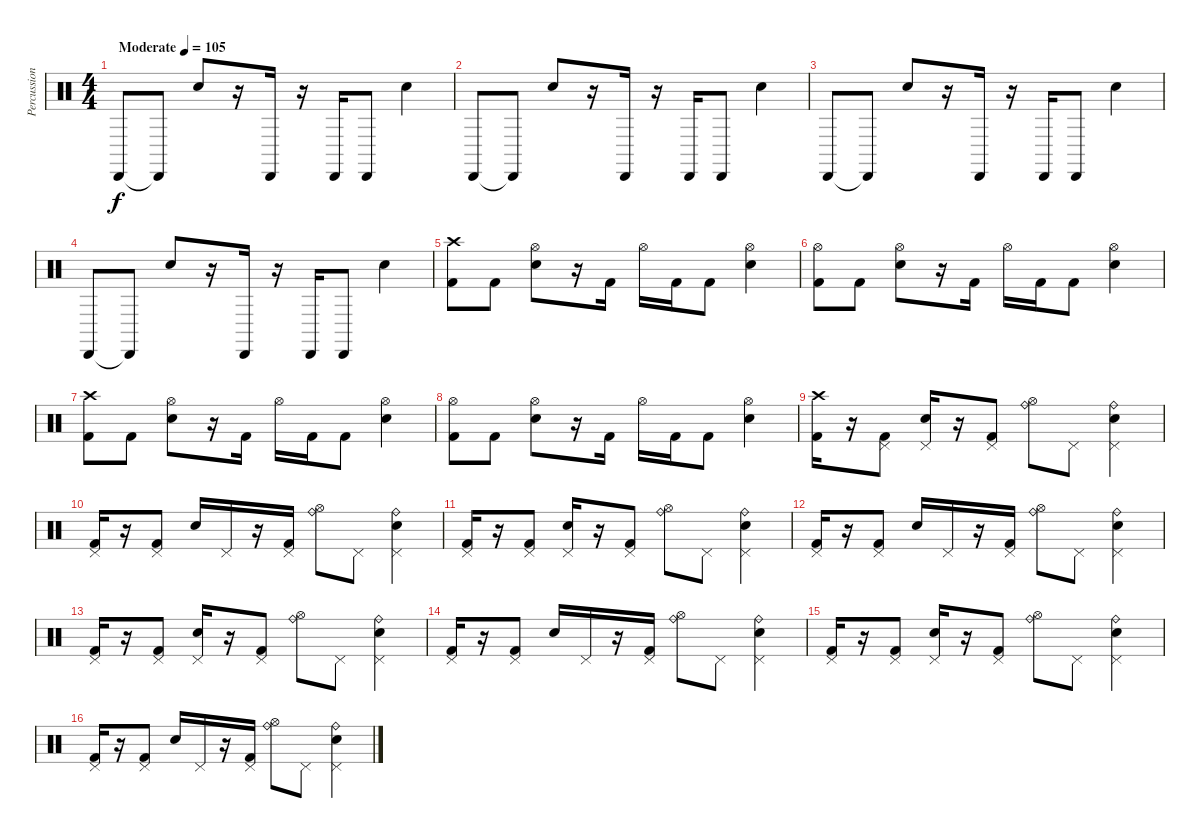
\track ("Percussion" "Percussion") {instrument percussion}
\staff {score}
\articulation defaults
\ts (4 4)
\tempo (105 "Moderate")
\clef neutral
\ks c "Cabasa (hit)".8{dy f} "Cabasa (hit)"{t}.8 "Hand Clap (hit)".8
r.16 "Cabasa (hit)".16 r.16 "Cabasa (hit)".16 "Cabasa (hit)".8 "Hand Clap (hit)".4 |
"Cabasa (hit)".8 "Cabasa (hit)"{t}.8 "Hand Clap (hit)".8 r.16 "Cabasa (hit)".16 r.16 "Cabasa (hit)".16 "Cabasa (hit)".8 "Hand Clap (hit)".4 |
"Cabasa (hit)".8 "Cabasa (hit)"{t}.8 "Hand Clap (hit)".8 r.16 "Cabasa (hit)".16 r.16 "Cabasa (hit)".16 "Cabasa (hit)".8 "Hand Clap (hit)".4 |
"Cabasa (hit)".8 "Cabasa (hit)"{t}.8 "Hand Clap (hit)".8 r.16 "Cabasa (hit)".16 r.16 "Cabasa (hit)".16 "Cabasa (hit)".8 "Hand Clap (hit)".4 |
("Crash high (hit)" "Kick (hit) 2").8 "Kick (hit) 2".8 ("Hi-Hat (open)" "Snare (hit) 2").8 r.16 "Kick (hit) 2".16 "Hi-Hat (open)".16 "Kick (hit) 2".16 "Kick (hit) 2".8 ("Hi-Hat (open)" "Snare (hit) 2").4 |
("Hi-Hat (open)" "Kick (hit) 2").8 "Kick (hit) 2".8 ("Hi-Hat (open)" "Snare (hit) 2").8 r.16 "Kick (hit) 2".16 "Hi-Hat (open)".16 "Kick (hit) 2".16 "Kick (hit) 2".8 ("Hi-Hat (open)" "Snare (hit) 2").4 |
("Crash high (hit)" "Kick (hit) 2").8 "Kick (hit) 2".8 ("Hi-Hat (open)" "Snare (hit) 2").8 r.16 "Kick (hit) 2".16 "Hi-Hat (open)".16 "Kick (hit) 2".16 "Kick (hit) 2".8 ("Hi-Hat (open)" "Snare (hit) 2").4 |
("Hi-Hat (open)" "Kick (hit) 2").8 "Kick (hit) 2".8 ("Hi-Hat (open)" "Snare (hit) 2").8 r.16 "Kick (hit) 2".16 "Hi-Hat (open)".16 "Kick (hit) 2".16 "Kick (hit) 2".8 ("Hi-Hat (open)" "Snare (hit) 2").4 |
("Crash high (hit)" "Kick (hit) 2").16 r.16 ("Pedal Hi-Hat (hit)" "Kick (hit) 2").8 ("Pedal Hi-Hat (hit)" "Snare (hit) 2").16 r.16 ("Pedal Hi-Hat (hit)" "Kick (hit) 2").8 ("Ride (bell)" "Hi-Hat (open)").8 "Pedal Hi-Hat (hit)".8 ("Ride (bell)" "Pedal Hi-Hat (hit)" "Snare (hit) 2").4 |
("Pedal Hi-Hat (hit)" "Kick (hit) 2").16 r.16 ("Pedal Hi-Hat (hit)" "Kick (hit) 2").8 "Snare (hit) 2".16 "Pedal Hi-Hat (hit)".16 r.16 ("Pedal Hi-Hat (hit)" "Kick (hit) 2").16 ("Ride (bell)" "Hi-Hat (open)").8 "Pedal Hi-Hat (hit)".8 ("Ride (bell)" "Pedal Hi-Hat (hit)" "Snare (hit) 2").4 |
("Pedal Hi-Hat (hit)" "Kick (hit) 2").16 r.16 ("Pedal Hi-Hat (hit)" "Kick (hit) 2").8 ("Pedal Hi-Hat (hit)" "Snare (hit) 2").16 r.16 ("Pedal Hi-Hat (hit)" "Kick (hit) 2").8 ("Ride (bell)" "Hi-Hat (open)").8 "Pedal Hi-Hat (hit)".8 ("Ride (bell)" "Pedal Hi-Hat (hit)" "Snare (hit) 2").4 |
("Pedal Hi-Hat (hit)" "Kick (hit) 2").16 r.16 ("Pedal Hi-Hat (hit)" "Kick (hit) 2").8 "Snare (hit) 2".16 "Pedal Hi-Hat (hit)".16 r.16 ("Pedal Hi-Hat (hit)" "Kick (hit) 2").16 ("Ride (bell)" "Hi-Hat (open)").8 "Pedal Hi-Hat (hit)".8 ("Ride (bell)" "Pedal Hi-Hat (hit)" "Snare (hit) 2").4 |
("Pedal Hi-Hat (hit)" "Kick (hit) 2").16 r.16 ("Pedal Hi-Hat (hit)" "Kick (hit) 2").8 ("Pedal Hi-Hat (hit)" "Snare (hit) 2").16 r.16 ("Pedal Hi-Hat (hit)" "Kick (hit) 2").8 ("Ride (bell)" "Hi-Hat (open)").8 "Pedal Hi-Hat (hit)".8 ("Ride (bell)" "Pedal Hi-Hat (hit)" "Snare (hit) 2").4 |
("Pedal Hi-Hat (hit)" "Kick (hit) 2").16 r.16 ("Pedal Hi-Hat (hit)" "Kick (hit) 2").8 "Snare (hit) 2".16 "Pedal Hi-Hat (hit)".16 r.16 ("Pedal Hi-Hat (hit)" "Kick (hit) 2").16 ("Ride (bell)" "Hi-Hat (open)").8 "Pedal Hi-Hat (hit)".8 ("Ride (bell)" "Pedal Hi-Hat (hit)" "Snare (hit) 2").4 |
("Pedal Hi-Hat (hit)" "Kick (hit) 2").16 r.16 ("Pedal Hi-Hat (hit)" "Kick (hit) 2").8 ("Pedal Hi-Hat (hit)" "Snare (hit) 2").16 r.16 ("Pedal Hi-Hat (hit)" "Kick (hit) 2").8 ("Ride (bell)" "Hi-Hat (open)").8 "Pedal Hi-Hat (hit)".8 ("Ride (bell)" "Pedal Hi-Hat (hit)" "Snare (hit) 2").4 |
("Pedal Hi-Hat (hit)" "Kick (hit) 2").16 r.16 ("Pedal Hi-Hat (hit)" "Kick (hit) 2").8 "Snare (hit) 2".16 "Pedal Hi-Hat (hit)".16 r.16 ("Pedal Hi-Hat (hit)" "Kick (hit) 2").16 ("Ride (bell)" "Hi-Hat (open)").8 "Pedal Hi-Hat (hit)".8 ("Ride (bell)" "Pedal Hi-Hat (hit)" "Snare (hit) 2").4
